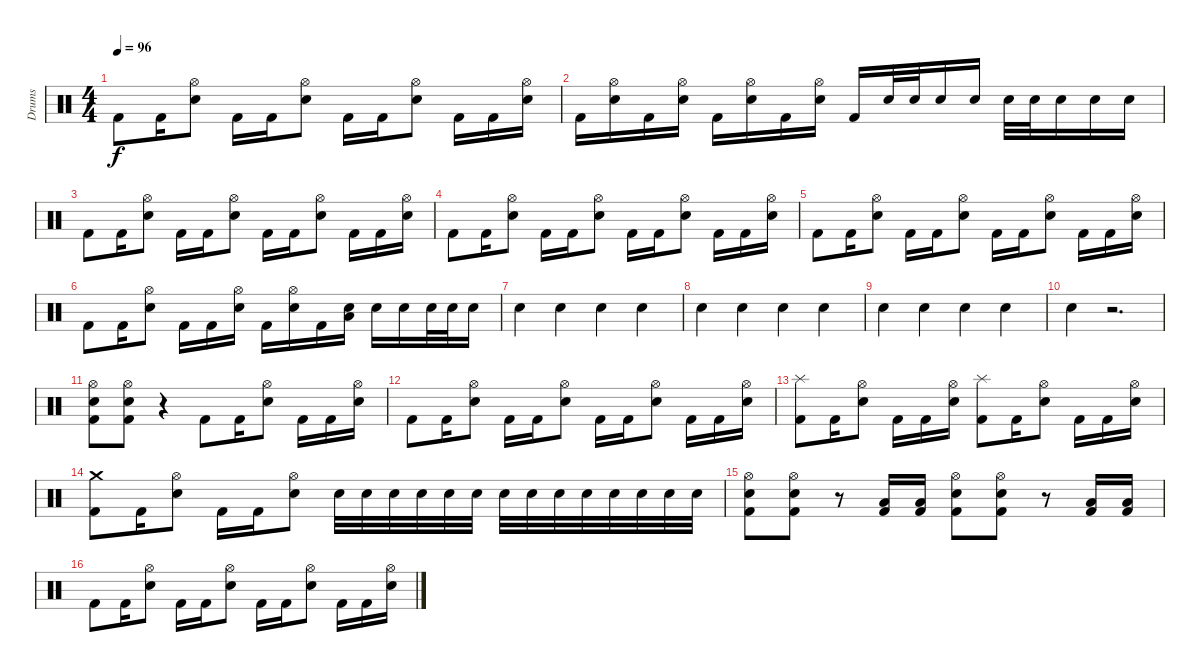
\track ("Drums" "Drums") {instrument percussion}
\staff {score}
\articulation defaults
\ts (4 4)
\tempo 96
\clef neutral
\ks c "Kick (hit) 2".8{dy f} "Kick (hit) 2".16
("Snare (hit) 2" "Hi-Hat (open)").8 "Kick (hit) 2".16 "Kick (hit) 2".16 ("Snare (hit) 2" "Hi-Hat (open)").8 "Kick (hit) 2".16 "Kick (hit) 2".16 ("Snare (hit) 2" "Hi-Hat (open)").8 "Kick (hit) 2".16 "Kick (hit) 2".16 ("Snare (hit) 2" "Hi-Hat (open)").16 |
"Kick (hit) 2".16 ("Snare (hit) 2" "Hi-Hat (open)").16 "Kick (hit) 2".16 ("Snare (hit) 2" "Hi-Hat (open)").16 "Kick (hit) 2".16 ("Snare (hit) 2" "Hi-Hat (open)").16 "Kick (hit) 2".16 ("Snare (hit) 2" "Hi-Hat (open)").16 "Kick (hit) 2".16 "Snare (hit) 2".32 "Snare (hit) 2".32 "Snare (hit) 2".16 "Snare (hit) 2".16 "Snare (hit) 2".32 "Snare (hit) 2".32 "Snare (hit) 2".16 "Snare (hit) 2".16 "Snare (hit) 2".16 |
"Kick (hit) 2".8 "Kick (hit) 2".16 ("Snare (hit) 2" "Hi-Hat (open)").8 "Kick (hit) 2".16 "Kick (hit) 2".16 ("Snare (hit) 2" "Hi-Hat (open)").8 "Kick (hit) 2".16 "Kick (hit) 2".16 ("Snare (hit) 2" "Hi-Hat (open)").8 "Kick (hit) 2".16 "Kick (hit) 2".16 ("Snare (hit) 2" "Hi-Hat (open)").16 |
"Kick (hit) 2".8 "Kick (hit) 2".16 ("Snare (hit) 2" "Hi-Hat (open)").8 "Kick (hit) 2".16 "Kick (hit) 2".16 ("Snare (hit) 2" "Hi-Hat (open)").8 "Kick (hit) 2".16 "Kick (hit) 2".16 ("Snare (hit) 2" "Hi-Hat (open)").8 "Kick (hit) 2".16 "Kick (hit) 2".16 ("Snare (hit) 2" "Hi-Hat (open)").16 |
"Kick (hit) 2".8 "Kick (hit) 2".16 ("Snare (hit) 2" "Hi-Hat (open)").8 "Kick (hit) 2".16 "Kick (hit) 2".16 ("Snare (hit) 2" "Hi-Hat (open)").8 "Kick (hit) 2".16 "Kick (hit) 2".16 ("Snare (hit) 2" "Hi-Hat (open)").8 "Kick (hit) 2".16 "Kick (hit) 2".16 ("Snare (hit) 2" "Hi-Hat (open)").16 |
"Kick (hit) 2".8 "Kick (hit) 2".16 ("Snare (hit) 2" "Hi-Hat (open)").8 "Kick (hit) 2".16 "Kick (hit) 2".16 ("Snare (hit) 2" "Hi-Hat (open)").16 "Kick (hit) 2".16 ("Snare (hit) 2" "Hi-Hat (open)").16 "Kick (hit) 2".16 ("Snare (hit) 2" "Low Tom (hit)").16 "Snare (hit) 2".16 "Snare (hit) 2".16 "Snare (hit) 2".32 "Snare (hit) 2".32 "Snare (hit) 2".16 |
"Snare (hit) 2".4 "Snare (hit) 2".4 "Snare (hit) 2".4 "Snare (hit) 2".4 |
"Snare (hit) 2".4 "Snare (hit) 2".4 "Snare (hit) 2".4 "Snare (hit) 2".4 |
"Snare (hit) 2".4 "Snare (hit) 2".4 "Snare (hit) 2".4 "Snare (hit) 2".4 |
"Snare (hit) 2".4 r.2{d} |
("Hi-Hat (open)" "Snare (hit) 2" "Kick (hit) 2").8 ("Hi-Hat (open)" "Snare (hit) 2" "Kick (hit) 2").8 r.4 "Kick (hit) 2".8 "Kick (hit) 2".16 ("Snare (hit) 2" "Hi-Hat (open)").8 "Kick (hit) 2".16 "Kick (hit) 2".16 ("Snare (hit) 2" "Hi-Hat (open)").16 |
"Kick (hit) 2".8 "Kick (hit) 2".16 ("Snare (hit) 2" "Hi-Hat (open)").8 "Kick (hit) 2".16 "Kick (hit) 2".16 ("Snare (hit) 2" "Hi-Hat (open)").8 "Kick (hit) 2".16 "Kick (hit) 2".16 ("Snare (hit) 2" "Hi-Hat (open)").8 "Kick (hit) 2".16 "Kick (hit) 2".16 ("Snare (hit) 2" "Hi-Hat (open)").16 |
("Kick (hit) 2" "Splash (hit)").8 "Kick (hit) 2".16 ("Snare (hit) 2" "Hi-Hat (open)").8 "Kick (hit) 2".16 "Kick (hit) 2".16 ("Snare (hit) 2" "Hi-Hat (open)").16 ("Kick (hit) 2" "Splash (hit)").8 "Kick (hit) 2".16 ("Snare (hit) 2" "Hi-Hat (open)").8 "Kick (hit) 2".16 "Kick (hit) 2".16 ("Snare (hit) 2" "Hi-Hat (open)").16 |
("Kick (hit) 2" "Crash medium (hit)").8 "Kick (hit) 2".16 ("Snare (hit) 2" "Hi-Hat (open)").8 "Kick (hit) 2".16 "Kick (hit) 2".16 ("Snare (hit) 2" "Hi-Hat (open)").8 "Snare (hit) 2".32 "Snare (hit) 2".32 "Snare (hit) 2".32 "Snare (hit) 2".32 "Snare (hit) 2".32 "Snare (hit) 2".32 "Snare (hit) 2".32 "Snare (hit) 2".32 "Snare (hit) 2".32 "Snare (hit) 2".32 "Snare (hit) 2".32 "Snare (hit) 2".32 "Snare (hit) 2".32 "Snare (hit) 2".32 |
("Hi-Hat (open)" "Snare (hit) 2" "Kick (hit) 2").8 ("Hi-Hat (open)" "Snare (hit) 2" "Kick (hit) 2").8 r.8 ("Kick (hit) 2" "Low Tom (hit)").16 ("Kick (hit) 2" "Low Tom (hit)").16 ("Hi-Hat (open)" "Snare (hit) 2" "Kick (hit) 2").8 ("Hi-Hat (open)" "Snare (hit) 2" "Kick (hit) 2").8 r.8 ("Kick (hit) 2" "Low Tom (hit)").16 ("Kick (hit) 2" "Low Tom (hit)").16 |
"Kick (hit) 2".8 "Kick (hit) 2".16 ("Snare (hit) 2" "Hi-Hat (open)").8 "Kick (hit) 2".16 "Kick (hit) 2".16 ("Snare (hit) 2" "Hi-Hat (open)").8 "Kick (hit) 2".16 "Kick (hit) 2".16 ("Snare (hit) 2" "Hi-Hat (open)").8 "Kick (hit) 2".16 "Kick (hit) 2".16 ("Snare (hit) 2" "Hi-Hat (open)").16
